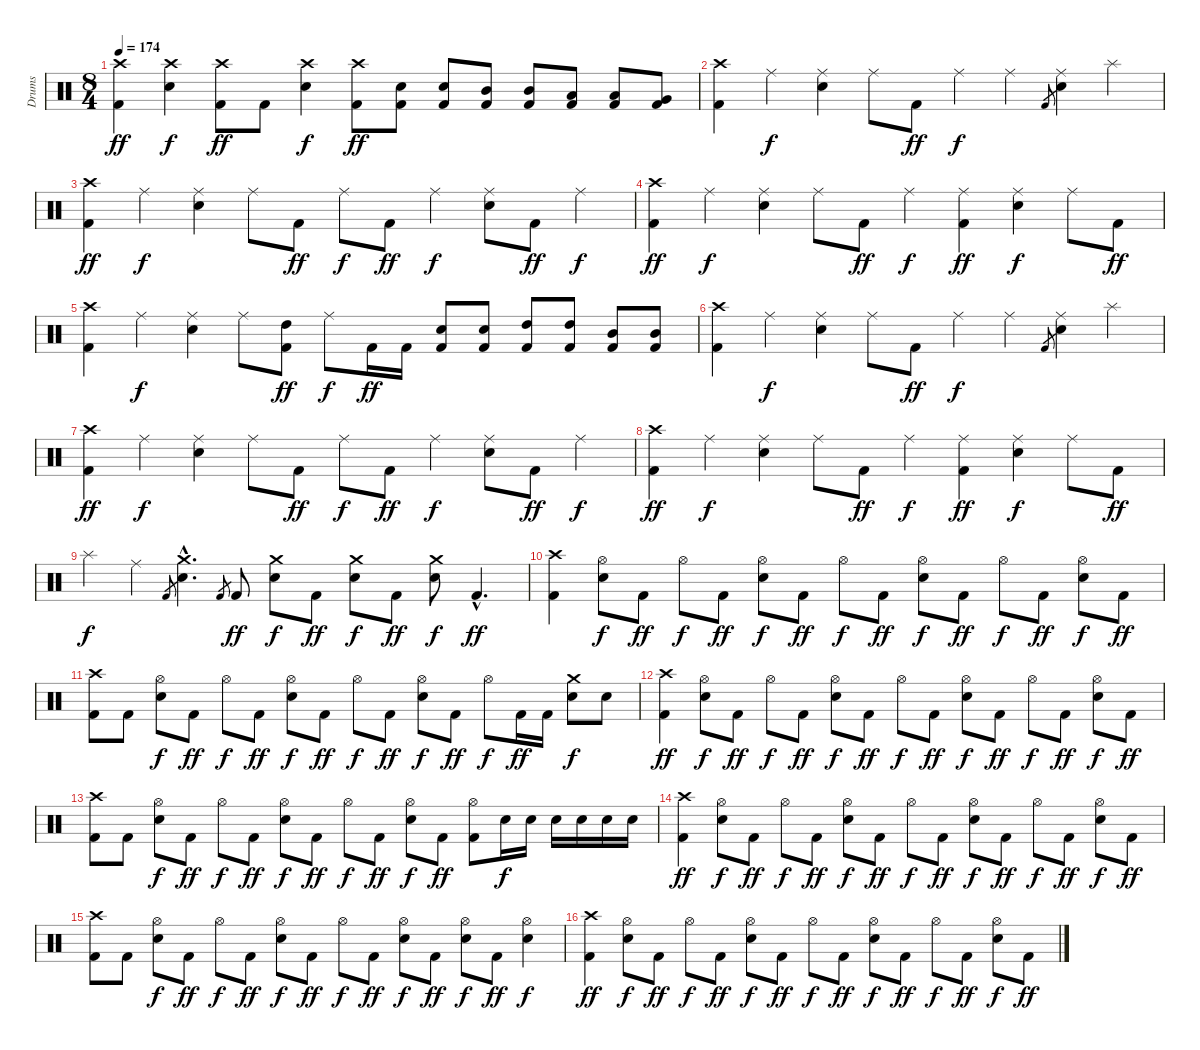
\track ("Drums" "Drums") {instrument percussion}
\staff {score}
\articulation defaults
\ts (8 4)
\tempo 174
\clef neutral
\ks c
("Crash high (hit)" "Kick (hit) 2").4{dy ff} ("Crash high (hit)" "Snare (hit) 2").4{dy f} ("Crash high (hit)" "Kick (hit) 2").8{dy ff} "Kick (hit) 2".8 ("Crash high (hit)" "Snare (hit) 2").4{dy f} ("Crash high (hit)" "Kick (hit) 2").8{dy ff} ("Snare (hit) 2" "Kick (hit) 2").8 ("Snare (hit) 2" "Kick (hit) 2").8 ("Mid Tom (hit)" "Kick (hit) 2").8 ("Mid Tom (hit)" "Kick (hit) 2").8 ("Low Tom (hit)" "Kick (hit) 2").8 ("Low Tom (hit)" "Kick (hit) 2").8 ("Very Low Tom (hit)" "Kick (hit) 2").8 |
("Crash high (hit)" "Kick (hit) 2").4 "Ride (middle)".4{dy f} ("Ride (middle)" "Snare (hit) 2").4 "Ride (middle)".8 "Kick (hit) 2".8{dy ff} "Ride (middle)".4{dy f} "Ride (middle)".4 "Kick (hit) 2".8{gr} ("Ride (middle)" "Snare (hit) 2").4 "Splash (hit)".4 |
("Crash high (hit)" "Kick (hit) 2").4{dy ff} "Ride (middle)".4{dy f} ("Ride (middle)" "Snare (hit) 2").4 "Ride (middle)".8 "Kick (hit) 2".8{dy ff} "Ride (middle)".8{dy f} "Kick (hit) 2".8{dy ff} "Ride (middle)".4{dy f} ("Ride (middle)" "Snare (hit) 2").8 "Kick (hit) 2".8{dy ff} "Ride (middle)".4{dy f} |
("Crash high (hit)" "Kick (hit) 2").4{dy ff} "Ride (middle)".4{dy f} ("Ride (middle)" "Snare (hit) 2").4 "Ride (middle)".8 "Kick (hit) 2".8{dy ff} "Ride (middle)".4{dy f} ("Ride (middle)" "Kick (hit) 2").4{dy ff} ("Ride (middle)" "Snare (hit) 2").4{dy f} "Ride (middle)".8 "Kick (hit) 2".8{dy ff} |
("Crash high (hit)" "Kick (hit) 2").4 "Ride (middle)".4{dy f} ("Ride (middle)" "Snare (hit) 2").4 "Ride (middle)".8 ("High Tom (hit)" "Kick (hit) 2").8{dy ff} "Ride (middle)".8{dy f} "Kick (hit) 2".16{dy ff} "Kick (hit) 2".16 ("Snare (hit) 2" "Kick (hit) 2").8 ("Snare (hit) 2" "Kick (hit) 2").8 ("High Tom (hit)" "Kick (hit) 2").8 ("High Tom (hit)" "Kick (hit) 2").8 ("Mid Tom (hit)" "Kick (hit) 2").8 ("Mid Tom (hit)" "Kick (hit) 2").8 |
("Crash high (hit)" "Kick (hit) 2").4 "Ride (middle)".4{dy f} ("Ride (middle)" "Snare (hit) 2").4 "Ride (middle)".8 "Kick (hit) 2".8{dy ff} "Ride (middle)".4{dy f} "Ride (middle)".4 "Kick (hit) 2".8{gr} ("Ride (middle)" "Snare (hit) 2").4 "Splash (hit)".4 |
("Crash high (hit)" "Kick (hit) 2").4{dy ff} "Ride (middle)".4{dy f} ("Ride (middle)" "Snare (hit) 2").4 "Ride (middle)".8 "Kick (hit) 2".8{dy ff} "Ride (middle)".8{dy f} "Kick (hit) 2".8{dy ff} "Ride (middle)".4{dy f} ("Ride (middle)" "Snare (hit) 2").8 "Kick (hit) 2".8{dy ff} "Ride (middle)".4{dy f} |
("Crash high (hit)" "Kick (hit) 2").4{dy ff} "Ride (middle)".4{dy f} ("Ride (middle)" "Snare (hit) 2").4 "Ride (middle)".8 "Kick (hit) 2".8{dy ff} "Ride (middle)".4{dy f} ("Ride (middle)" "Kick (hit) 2").4{dy ff} ("Ride (middle)" "Snare (hit) 2").4{dy f} "Ride (middle)".8 "Kick (hit) 2".8{dy ff} |
"Splash (hit)".4{dy f} "Ride (middle)".4 "Kick (hit) 2".8{gr} ("Crash medium (hit)"{hac} "Snare (hit) 2"{hac}).4{d} "Kick (hit) 2".8{gr} "Kick (hit) 2".8{dy ff} ("Crash medium (hit)" "Snare (hit) 2").8{dy f} "Kick (hit) 2".8{dy ff} ("Crash medium (hit)" "Snare (hit) 2").8{dy f} "Kick (hit) 2".8{dy ff} ("Crash medium (hit)" "Snare (hit) 2").8{dy f} "Kick (hit) 2"{hac}.4{d dy ff} |
("Crash high (hit)" "Kick (hit) 2").4 ("Hi-Hat (open)" "Snare (hit) 2").8{dy f} "Kick (hit) 2".8{dy ff} "Hi-Hat (open)".8{dy f} "Kick (hit) 2".8{dy ff} ("Hi-Hat (open)" "Snare (hit) 2").8{dy f} "Kick (hit) 2".8{dy ff} "Hi-Hat (open)".8{dy f} "Kick (hit) 2".8{dy ff} ("Hi-Hat (open)" "Snare (hit) 2").8{dy f} "Kick (hit) 2".8{dy ff} "Hi-Hat (open)".8{dy f} "Kick (hit) 2".8{dy ff} ("Hi-Hat (open)" "Snare (hit) 2").8{dy f} "Kick (hit) 2".8{dy ff} |
("Crash high (hit)" "Kick (hit) 2").8 "Kick (hit) 2".8 ("Hi-Hat (open)" "Snare (hit) 2").8{dy f} "Kick (hit) 2".8{dy ff} "Hi-Hat (open)".8{dy f} "Kick (hit) 2".8{dy ff} ("Hi-Hat (open)" "Snare (hit) 2").8{dy f} "Kick (hit) 2".8{dy ff} "Hi-Hat (open)".8{dy f} "Kick (hit) 2".8{dy ff} ("Hi-Hat (open)" "Snare (hit) 2").8{dy f} "Kick (hit) 2".8{dy ff} "Hi-Hat (open)".8{dy f} "Kick (hit) 2".16{dy ff} "Kick (hit) 2".16 ("Crash medium (hit)" "Snare (hit) 2").8{dy f} "Snare (hit) 2".8 |
("Crash high (hit)" "Kick (hit) 2").4{dy ff} ("Hi-Hat (open)" "Snare (hit) 2").8{dy f} "Kick (hit) 2".8{dy ff} "Hi-Hat (open)".8{dy f} "Kick (hit) 2".8{dy ff} ("Hi-Hat (open)" "Snare (hit) 2").8{dy f} "Kick (hit) 2".8{dy ff} "Hi-Hat (open)".8{dy f} "Kick (hit) 2".8{dy ff} ("Hi-Hat (open)" "Snare (hit) 2").8{dy f} "Kick (hit) 2".8{dy ff} "Hi-Hat (open)".8{dy f} "Kick (hit) 2".8{dy ff} ("Hi-Hat (open)" "Snare (hit) 2").8{dy f} "Kick (hit) 2".8{dy ff} |
("Crash high (hit)" "Kick (hit) 2").8 "Kick (hit) 2".8 ("Hi-Hat (open)" "Snare (hit) 2").8{dy f} "Kick (hit) 2".8{dy ff} "Hi-Hat (open)".8{dy f} "Kick (hit) 2".8{dy ff} ("Hi-Hat (open)" "Snare (hit) 2").8{dy f} "Kick (hit) 2".8{dy ff} "Hi-Hat (open)".8{dy f} "Kick (hit) 2".8{dy ff} ("Hi-Hat (open)" "Snare (hit) 2").8{dy f} "Kick (hit) 2".8{dy ff} ("Hi-Hat (open)" "Kick (hit) 2").8 "Snare (hit) 2".16{dy f} "Snare (hit) 2".16 "Snare (hit) 2".16 "Snare (hit) 2".16 "Snare (hit) 2".16 "Snare (hit) 2".16 |
("Crash high (hit)" "Kick (hit) 2").4{dy ff} ("Hi-Hat (open)" "Snare (hit) 2").8{dy f} "Kick (hit) 2".8{dy ff} "Hi-Hat (open)".8{dy f} "Kick (hit) 2".8{dy ff} ("Hi-Hat (open)" "Snare (hit) 2").8{dy f} "Kick (hit) 2".8{dy ff} "Hi-Hat (open)".8{dy f} "Kick (hit) 2".8{dy ff} ("Hi-Hat (open)" "Snare (hit) 2").8{dy f} "Kick (hit) 2".8{dy ff} "Hi-Hat (open)".8{dy f} "Kick (hit) 2".8{dy ff} ("Hi-Hat (open)" "Snare (hit) 2").8{dy f} "Kick (hit) 2".8{dy ff} |
("Crash high (hit)" "Kick (hit) 2").8 "Kick (hit) 2".8 ("Hi-Hat (open)" "Snare (hit) 2").8{dy f} "Kick (hit) 2".8{dy ff} "Hi-Hat (open)".8{dy f} "Kick (hit) 2".8{dy ff} ("Hi-Hat (open)" "Snare (hit) 2").8{dy f} "Kick (hit) 2".8{dy ff} "Hi-Hat (open)".8{dy f} "Kick (hit) 2".8{dy ff} ("Hi-Hat (open)" "Snare (hit) 2").8{dy f} "Kick (hit) 2".8{dy ff} ("Hi-Hat (open)" "Snare (hit) 2").8{dy f} "Kick (hit) 2".8{dy ff} ("Hi-Hat (open)" "Snare (hit) 2").4{dy f} |
("Crash high (hit)" "Kick (hit) 2").4{dy ff} ("Hi-Hat (open)" "Snare (hit) 2").8{dy f} "Kick (hit) 2".8{dy ff} "Hi-Hat (open)".8{dy f} "Kick (hit) 2".8{dy ff} ("Hi-Hat (open)" "Snare (hit) 2").8{dy f} "Kick (hit) 2".8{dy ff} "Hi-Hat (open)".8{dy f} "Kick (hit) 2".8{dy ff} ("Hi-Hat (open)" "Snare (hit) 2").8{dy f} "Kick (hit) 2".8{dy ff} "Hi-Hat (open)".8{dy f} "Kick (hit) 2".8{dy ff} ("Hi-Hat (open)" "Snare (hit) 2").8{dy f} "Kick (hit) 2".8{dy ff}
